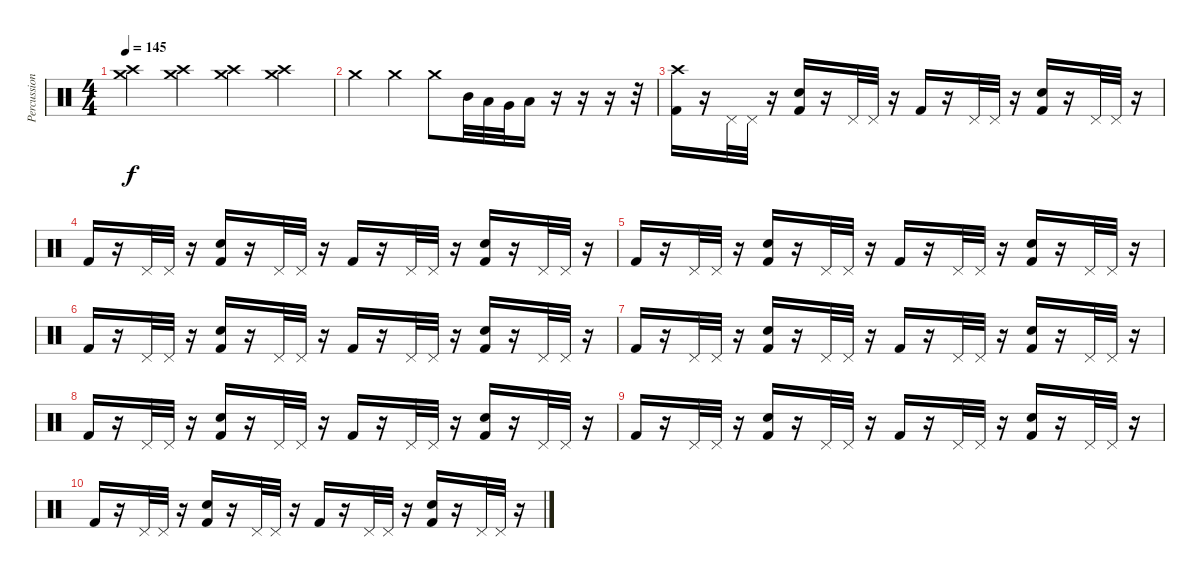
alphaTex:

\track ("Percussions" "Percussion") {instrument percussion}
\staff {score}
\articulation defaults
\ts (4 4)
\tempo 145
\clef neutral
\ks c
("Crash high (hit)" "Crash medium (hit)").4{dy f} ("Crash high (hit)" "Crash medium (hit)").4 ("Crash high (hit)" "Crash medium (hit)").4 ("Crash high (hit)" "Crash medium (hit)").4 |
"Crash medium (hit)".4 "Crash medium (hit)".4 "Crash medium (hit)".8 "Mid Tom (hit)".32 "Low Tom (hit)".32 "Very Low Tom (hit)".32 "Low Floor Tom (hit)".16 r.16 r.16 r.16 r.32 |
("Kick (hit) 2" "Crash high (hit)").16 r.16 "Pedal Hi-Hat (hit)".32 "Pedal Hi-Hat (hit)".32 r.16 ("Kick (hit) 2" "Electric Snare (hit)").16 r.16 "Pedal Hi-Hat (hit)".32 "Pedal Hi-Hat (hit)".32 r.16 "Kick (hit) 2".16 r.16 "Pedal Hi-Hat (hit)".32 "Pedal Hi-Hat (hit)".32 r.16 ("Kick (hit) 2" "Electric Snare (hit)").16 r.16 "Pedal Hi-Hat (hit)".32 "Pedal Hi-Hat (hit)".32 r.16 |
"Kick (hit) 2".16 r.16 "Pedal Hi-Hat (hit)".32 "Pedal Hi-Hat (hit)".32 r.16 ("Kick (hit) 2" "Electric Snare (hit)").16 r.16 "Pedal Hi-Hat (hit)".32 "Pedal Hi-Hat (hit)".32 r.16 "Kick (hit) 2".16 r.16 "Pedal Hi-Hat (hit)".32 "Pedal Hi-Hat (hit)".32 r.16 ("Kick (hit) 2" "Electric Snare (hit)").16 r.16 "Pedal Hi-Hat (hit)".32 "Pedal Hi-Hat (hit)".32 r.16 |
"Kick (hit) 2".16 r.16 "Pedal Hi-Hat (hit)".32 "Pedal Hi-Hat (hit)".32 r.16 ("Kick (hit) 2" "Electric Snare (hit)").16 r.16 "Pedal Hi-Hat (hit)".32 "Pedal Hi-Hat (hit)".32 r.16 "Kick (hit) 2".16 r.16 "Pedal Hi-Hat (hit)".32 "Pedal Hi-Hat (hit)".32 r.16 ("Kick (hit) 2" "Electric Snare (hit)").16 r.16 "Pedal Hi-Hat (hit)".32 "Pedal Hi-Hat (hit)".32 r.16 |
"Kick (hit) 2".16 r.16 "Pedal Hi-Hat (hit)".32 "Pedal Hi-Hat (hit)".32 r.16 ("Kick (hit) 2" "Electric Snare (hit)").16 r.16 "Pedal Hi-Hat (hit)".32 "Pedal Hi-Hat (hit)".32 r.16 "Kick (hit) 2".16 r.16 "Pedal Hi-Hat (hit)".32 "Pedal Hi-Hat (hit)".32 r.16 ("Kick (hit) 2" "Electric Snare (hit)").16 r.16 "Pedal Hi-Hat (hit)".32 "Pedal Hi-Hat (hit)".32 r.16 |
"Kick (hit) 2".16 r.16 "Pedal Hi-Hat (hit)".32 "Pedal Hi-Hat (hit)".32 r.16 ("Kick (hit) 2" "Electric Snare (hit)").16 r.16 "Pedal Hi-Hat (hit)".32 "Pedal Hi-Hat (hit)".32 r.16 "Kick (hit) 2".16 r.16 "Pedal Hi-Hat (hit)".32 "Pedal Hi-Hat (hit)".32 r.16 ("Kick (hit) 2" "Electric Snare (hit)").16 r.16 "Pedal Hi-Hat (hit)".32 "Pedal Hi-Hat (hit)".32 r.16 |
"Kick (hit) 2".16 r.16 "Pedal Hi-Hat (hit)".32 "Pedal Hi-Hat (hit)".32 r.16 ("Kick (hit) 2" "Electric Snare (hit)").16 r.16 "Pedal Hi-Hat (hit)".32 "Pedal Hi-Hat (hit)".32 r.16 "Kick (hit) 2".16 r.16 "Pedal Hi-Hat (hit)".32 "Pedal Hi-Hat (hit)".32 r.16 ("Kick (hit) 2" "Electric Snare (hit)").16 r.16 "Pedal Hi-Hat (hit)".32 "Pedal Hi-Hat (hit)".32 r.16 |
"Kick (hit) 2".16 r.16 "Pedal Hi-Hat (hit)".32 "Pedal Hi-Hat (hit)".32 r.16 ("Kick (hit) 2" "Electric Snare (hit)").16 r.16 "Pedal Hi-Hat (hit)".32 "Pedal Hi-Hat (hit)".32 r.16 "Kick (hit) 2".16 r.16 "Pedal Hi-Hat (hit)".32 "Pedal Hi-Hat (hit)".32 r.16 ("Kick (hit) 2" "Electric Snare (hit)").16 r.16 "Pedal Hi-Hat (hit)".32 "Pedal Hi-Hat (hit)".32 r.16 |
"Kick (hit) 2".16 r.16 "Pedal Hi-Hat (hit)".32 "Pedal Hi-Hat (hit)".32 r.16 ("Kick (hit) 2" "Electric Snare (hit)").16 r.16 "Pedal Hi-Hat (hit)".32 "Pedal Hi-Hat (hit)".32 r.16 "Kick (hit) 2".16 r.16 "Pedal Hi-Hat (hit)".32 "Pedal Hi-Hat (hit)".32 r.16 ("Kick (hit) 2" "Electric Snare (hit)").16 r.16 "Pedal Hi-Hat (hit)".32 "Pedal Hi-Hat (hit)".32 r.16
